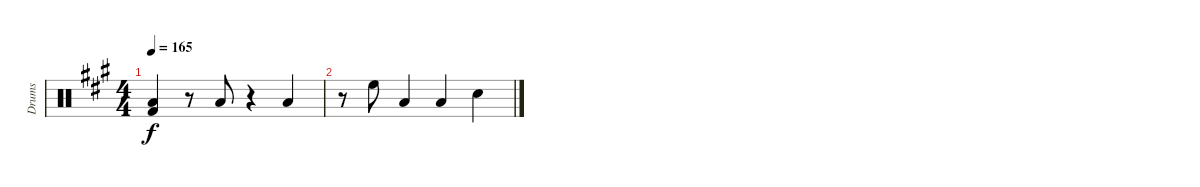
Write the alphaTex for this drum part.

\track ("Drums" "Drums") {instrument percussion}
\staff {score}
\articulation defaults
\ts (4 4)
\tempo 165
\clef neutral
\ks a
("Low Tom (hit)" "Kick (hit) 2").4{dy f} r.8 "Low Tom (hit)".8 r.4 "Low Tom (hit)".4 |
r.8 "High Floor Tom (hit)".8 "Low Tom (hit)".4 "Low Tom (hit)".4 "Electric Snare (hit)".4
